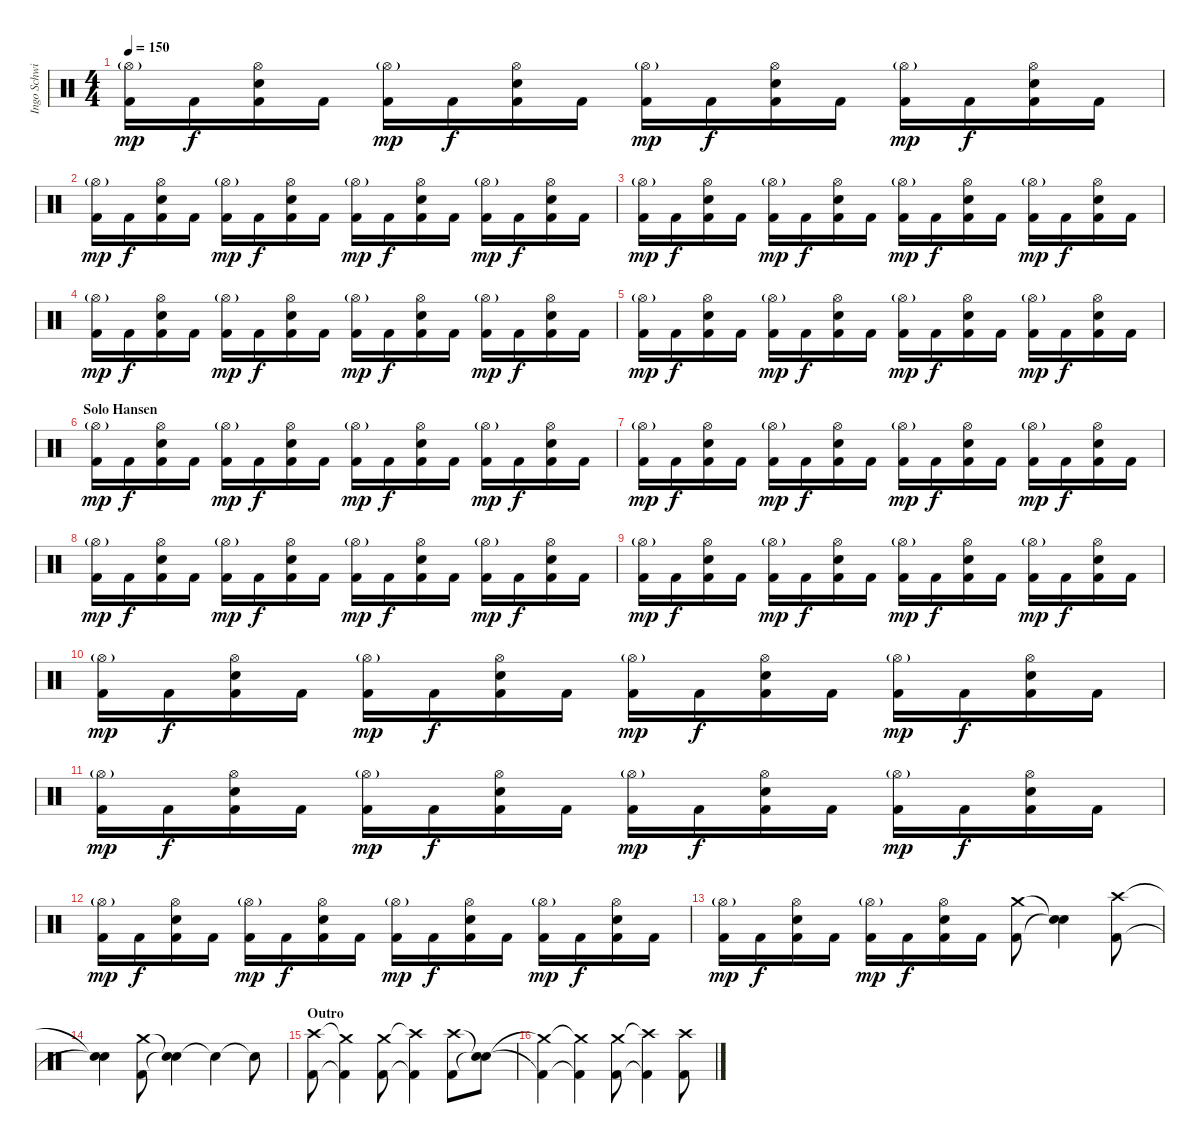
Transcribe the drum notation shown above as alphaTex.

\track ("Ingo Schwichtenberg" "Ingo Schwi") {instrument percussion}
\staff {score}
\articulation defaults
\ts (4 4)
\tempo 150
\clef neutral
\ks c
("Hi-Hat (open)"{g} "Kick (hit) 2").16{dy mp} "Kick (hit) 2".16{dy f} ("Hi-Hat (open)" "Snare (hit) 2" "Kick (hit) 2").16 "Kick (hit) 2".16 ("Hi-Hat (open)"{g} "Kick (hit) 2").16{dy mp} "Kick (hit) 2".16{dy f} ("Hi-Hat (open)" "Snare (hit) 2" "Kick (hit) 2").16 "Kick (hit) 2".16 ("Hi-Hat (open)"{g} "Kick (hit) 2").16{dy mp} "Kick (hit) 2".16{dy f} ("Hi-Hat (open)" "Snare (hit) 2" "Kick (hit) 2").16 "Kick (hit) 2".16 ("Hi-Hat (open)"{g} "Kick (hit) 2").16{dy mp} "Kick (hit) 2".16{dy f} ("Hi-Hat (open)" "Snare (hit) 2" "Kick (hit) 2").16 "Kick (hit) 2".16 |
("Hi-Hat (open)"{g} "Kick (hit) 2").16{dy mp} "Kick (hit) 2".16{dy f} ("Hi-Hat (open)" "Snare (hit) 2" "Kick (hit) 2").16 "Kick (hit) 2".16 ("Hi-Hat (open)"{g} "Kick (hit) 2").16{dy mp} "Kick (hit) 2".16{dy f} ("Hi-Hat (open)" "Snare (hit) 2" "Kick (hit) 2").16 "Kick (hit) 2".16 ("Hi-Hat (open)"{g} "Kick (hit) 2").16{dy mp} "Kick (hit) 2".16{dy f} ("Hi-Hat (open)" "Snare (hit) 2" "Kick (hit) 2").16 "Kick (hit) 2".16 ("Hi-Hat (open)"{g} "Kick (hit) 2").16{dy mp} "Kick (hit) 2".16{dy f} ("Hi-Hat (open)" "Snare (hit) 2" "Kick (hit) 2").16 "Kick (hit) 2".16 |
("Hi-Hat (open)"{g} "Kick (hit) 2").16{dy mp} "Kick (hit) 2".16{dy f} ("Hi-Hat (open)" "Snare (hit) 2" "Kick (hit) 2").16 "Kick (hit) 2".16 ("Hi-Hat (open)"{g} "Kick (hit) 2").16{dy mp} "Kick (hit) 2".16{dy f} ("Hi-Hat (open)" "Snare (hit) 2" "Kick (hit) 2").16 "Kick (hit) 2".16 ("Hi-Hat (open)"{g} "Kick (hit) 2").16{dy mp} "Kick (hit) 2".16{dy f} ("Hi-Hat (open)" "Snare (hit) 2" "Kick (hit) 2").16 "Kick (hit) 2".16 ("Hi-Hat (open)"{g} "Kick (hit) 2").16{dy mp} "Kick (hit) 2".16{dy f} ("Hi-Hat (open)" "Snare (hit) 2" "Kick (hit) 2").16 "Kick (hit) 2".16 |
("Hi-Hat (open)"{g} "Kick (hit) 2").16{dy mp} "Kick (hit) 2".16{dy f} ("Hi-Hat (open)" "Snare (hit) 2" "Kick (hit) 2").16 "Kick (hit) 2".16 ("Hi-Hat (open)"{g} "Kick (hit) 2").16{dy mp} "Kick (hit) 2".16{dy f} ("Hi-Hat (open)" "Snare (hit) 2" "Kick (hit) 2").16 "Kick (hit) 2".16 ("Hi-Hat (open)"{g} "Kick (hit) 2").16{dy mp} "Kick (hit) 2".16{dy f} ("Hi-Hat (open)" "Snare (hit) 2" "Kick (hit) 2").16 "Kick (hit) 2".16 ("Hi-Hat (open)"{g} "Kick (hit) 2").16{dy mp} "Kick (hit) 2".16{dy f} ("Hi-Hat (open)" "Snare (hit) 2" "Kick (hit) 2").16 "Kick (hit) 2".16 |
("Hi-Hat (open)"{g} "Kick (hit) 2").16{dy mp} "Kick (hit) 2".16{dy f} ("Hi-Hat (open)" "Snare (hit) 2" "Kick (hit) 2").16 "Kick (hit) 2".16 ("Hi-Hat (open)"{g} "Kick (hit) 2").16{dy mp} "Kick (hit) 2".16{dy f} ("Hi-Hat (open)" "Snare (hit) 2" "Kick (hit) 2").16 "Kick (hit) 2".16 ("Hi-Hat (open)"{g} "Kick (hit) 2").16{dy mp} "Kick (hit) 2".16{dy f} ("Hi-Hat (open)" "Snare (hit) 2" "Kick (hit) 2").16 "Kick (hit) 2".16 ("Hi-Hat (open)"{g} "Kick (hit) 2").16{dy mp} "Kick (hit) 2".16{dy f} ("Hi-Hat (open)" "Snare (hit) 2" "Kick (hit) 2").16 "Kick (hit) 2".16 |
\section ("" "Solo Hansen")
("Hi-Hat (open)"{g} "Kick (hit) 2").16{dy mp} "Kick (hit) 2".16{dy f} ("Hi-Hat (open)" "Snare (hit) 2" "Kick (hit) 2").16 "Kick (hit) 2".16 ("Hi-Hat (open)"{g} "Kick (hit) 2").16{dy mp} "Kick (hit) 2".16{dy f} ("Hi-Hat (open)" "Snare (hit) 2" "Kick (hit) 2").16 "Kick (hit) 2".16 ("Hi-Hat (open)"{g} "Kick (hit) 2").16{dy mp} "Kick (hit) 2".16{dy f} ("Hi-Hat (open)" "Snare (hit) 2" "Kick (hit) 2").16 "Kick (hit) 2".16 ("Hi-Hat (open)"{g} "Kick (hit) 2").16{dy mp} "Kick (hit) 2".16{dy f} ("Hi-Hat (open)" "Snare (hit) 2" "Kick (hit) 2").16 "Kick (hit) 2".16 |
("Hi-Hat (open)"{g} "Kick (hit) 2").16{dy mp} "Kick (hit) 2".16{dy f} ("Hi-Hat (open)" "Snare (hit) 2" "Kick (hit) 2").16 "Kick (hit) 2".16 ("Hi-Hat (open)"{g} "Kick (hit) 2").16{dy mp} "Kick (hit) 2".16{dy f} ("Hi-Hat (open)" "Snare (hit) 2" "Kick (hit) 2").16 "Kick (hit) 2".16 ("Hi-Hat (open)"{g} "Kick (hit) 2").16{dy mp} "Kick (hit) 2".16{dy f} ("Hi-Hat (open)" "Snare (hit) 2" "Kick (hit) 2").16 "Kick (hit) 2".16 ("Hi-Hat (open)"{g} "Kick (hit) 2").16{dy mp} "Kick (hit) 2".16{dy f} ("Hi-Hat (open)" "Snare (hit) 2" "Kick (hit) 2").16 "Kick (hit) 2".16 |
("Hi-Hat (open)"{g} "Kick (hit) 2").16{dy mp} "Kick (hit) 2".16{dy f} ("Hi-Hat (open)" "Snare (hit) 2" "Kick (hit) 2").16 "Kick (hit) 2".16 ("Hi-Hat (open)"{g} "Kick (hit) 2").16{dy mp} "Kick (hit) 2".16{dy f} ("Hi-Hat (open)" "Snare (hit) 2" "Kick (hit) 2").16 "Kick (hit) 2".16 ("Hi-Hat (open)"{g} "Kick (hit) 2").16{dy mp} "Kick (hit) 2".16{dy f} ("Hi-Hat (open)" "Snare (hit) 2" "Kick (hit) 2").16 "Kick (hit) 2".16 ("Hi-Hat (open)"{g} "Kick (hit) 2").16{dy mp} "Kick (hit) 2".16{dy f} ("Hi-Hat (open)" "Snare (hit) 2" "Kick (hit) 2").16 "Kick (hit) 2".16 |
("Hi-Hat (open)"{g} "Kick (hit) 2").16{dy mp} "Kick (hit) 2".16{dy f} ("Hi-Hat (open)" "Snare (hit) 2" "Kick (hit) 2").16 "Kick (hit) 2".16 ("Hi-Hat (open)"{g} "Kick (hit) 2").16{dy mp} "Kick (hit) 2".16{dy f} ("Hi-Hat (open)" "Snare (hit) 2" "Kick (hit) 2").16 "Kick (hit) 2".16 ("Hi-Hat (open)"{g} "Kick (hit) 2").16{dy mp} "Kick (hit) 2".16{dy f} ("Hi-Hat (open)" "Snare (hit) 2" "Kick (hit) 2").16 "Kick (hit) 2".16 ("Hi-Hat (open)"{g} "Kick (hit) 2").16{dy mp} "Kick (hit) 2".16{dy f} ("Hi-Hat (open)" "Snare (hit) 2" "Kick (hit) 2").16 "Kick (hit) 2".16 |
("Hi-Hat (open)"{g} "Kick (hit) 2").16{dy mp} "Kick (hit) 2".16{dy f} ("Hi-Hat (open)" "Snare (hit) 2" "Kick (hit) 2").16 "Kick (hit) 2".16 ("Hi-Hat (open)"{g} "Kick (hit) 2").16{dy mp} "Kick (hit) 2".16{dy f} ("Hi-Hat (open)" "Snare (hit) 2" "Kick (hit) 2").16 "Kick (hit) 2".16 ("Hi-Hat (open)"{g} "Kick (hit) 2").16{dy mp} "Kick (hit) 2".16{dy f} ("Hi-Hat (open)" "Snare (hit) 2" "Kick (hit) 2").16 "Kick (hit) 2".16 ("Hi-Hat (open)"{g} "Kick (hit) 2").16{dy mp} "Kick (hit) 2".16{dy f} ("Hi-Hat (open)" "Snare (hit) 2" "Kick (hit) 2").16 "Kick (hit) 2".16 |
("Hi-Hat (open)"{g} "Kick (hit) 2").16{dy mp} "Kick (hit) 2".16{dy f} ("Hi-Hat (open)" "Snare (hit) 2" "Kick (hit) 2").16 "Kick (hit) 2".16 ("Hi-Hat (open)"{g} "Kick (hit) 2").16{dy mp} "Kick (hit) 2".16{dy f} ("Hi-Hat (open)" "Snare (hit) 2" "Kick (hit) 2").16 "Kick (hit) 2".16 ("Hi-Hat (open)"{g} "Kick (hit) 2").16{dy mp} "Kick (hit) 2".16{dy f} ("Hi-Hat (open)" "Snare (hit) 2" "Kick (hit) 2").16 "Kick (hit) 2".16 ("Hi-Hat (open)"{g} "Kick (hit) 2").16{dy mp} "Kick (hit) 2".16{dy f} ("Hi-Hat (open)" "Snare (hit) 2" "Kick (hit) 2").16 "Kick (hit) 2".16 |
("Hi-Hat (open)"{g} "Kick (hit) 2").16{dy mp} "Kick (hit) 2".16{dy f} ("Hi-Hat (open)" "Snare (hit) 2" "Kick (hit) 2").16 "Kick (hit) 2".16 ("Hi-Hat (open)"{g} "Kick (hit) 2").16{dy mp} "Kick (hit) 2".16{dy f} ("Hi-Hat (open)" "Snare (hit) 2" "Kick (hit) 2").16 "Kick (hit) 2".16 ("Hi-Hat (open)"{g} "Kick (hit) 2").16{dy mp} "Kick (hit) 2".16{dy f} ("Hi-Hat (open)" "Snare (hit) 2" "Kick (hit) 2").16 "Kick (hit) 2".16 ("Hi-Hat (open)"{g} "Kick (hit) 2").16{dy mp} "Kick (hit) 2".16{dy f} ("Hi-Hat (open)" "Snare (hit) 2" "Kick (hit) 2").16 "Kick (hit) 2".16 |
("Hi-Hat (open)"{g} "Kick (hit) 2").16{dy mp} "Kick (hit) 2".16{dy f} ("Hi-Hat (open)" "Snare (hit) 2" "Kick (hit) 2").16 "Kick (hit) 2".16 ("Hi-Hat (open)"{g} "Kick (hit) 2").16{dy mp} "Kick (hit) 2".16{dy f} ("Hi-Hat (open)" "Snare (hit) 2" "Kick (hit) 2").16 "Kick (hit) 2".16 ("Crash medium (hit)" "Kick (hit) 2").8 ("Snare (hit)"{t} "Snare (hit)"{t}).4 ("Crash high (hit)" "Kick (hit) 2").8 |
("Snare (hit)"{t} "Snare (hit)"{t}).4 ("Crash medium (hit)" "Kick (hit) 2").8 ("Snare (hit)"{t} "Snare (hit)"{t}).4 "Snare (hit)"{t}.4 "Snare (hit)"{t}.8 |
\section ("" "Outro")
("Crash high (hit)" "Kick (hit) 2").8 ("Crash medium (hit)"{t} "Kick (hit) 2"{t}).4 ("Crash medium (hit)" "Kick (hit) 2").8 ("Crash high (hit)"{t} "Kick (hit) 2"{t}).4 ("Crash high (hit)" "Kick (hit) 2").8 ("Snare (hit)"{t} "Snare (hit)"{t}).8 |
("Crash medium (hit)"{t} "Kick (hit) 2"{t}).4 ("Crash medium (hit)"{t} "Kick (hit) 2"{t}).4 ("Crash medium (hit)" "Kick (hit) 2").8 ("Crash high (hit)"{t} "Kick (hit) 2"{t}).4 ("Crash high (hit)" "Kick (hit) 2").8
